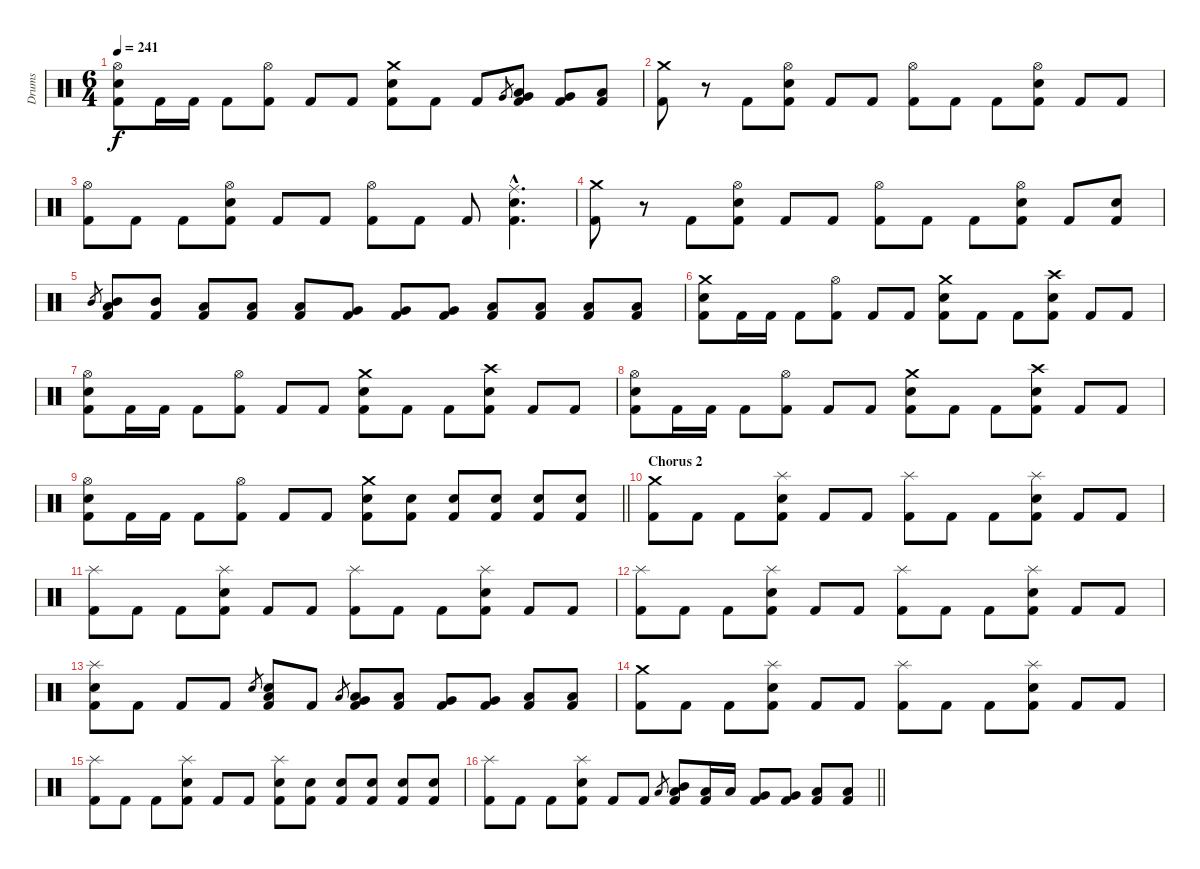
\track ("Drums" "Drums") {instrument percussion}
\staff {score}
\articulation defaults
\ts (6 4)
\tempo 241
\clef neutral
\ks c
("Hi-Hat (open)" "Electric Snare (hit)" "Kick (hit) 2").8{dy f} "Kick (hit) 2".16 "Kick (hit) 2".16 "Kick (hit) 2".8 ("Hi-Hat (open)" "Kick (hit) 2").8 "Kick (hit) 2".8 "Kick (hit) 2".8 ("Crash medium (hit)" "Electric Snare (hit)" "Kick (hit) 2").8 "Kick (hit) 2".8 "Kick (hit) 2".8 "Very Low Tom (hit)".8{gr} ("Very Low Tom (hit)" "Low Tom (hit)" "Kick (hit) 2").8 ("Very Low Tom (hit)" "Kick (hit) 2").8 ("Low Floor Tom (hit)" "Kick (hit) 2").8 |
("Crash medium (hit)" "Kick (hit) 2").8 r.8 "Kick (hit) 2".8 ("Hi-Hat (open)" "Electric Snare (hit)" "Kick (hit) 2").8 "Kick (hit) 2".8 "Kick (hit) 2".8 ("Hi-Hat (open)" "Kick (hit) 2").8 "Kick (hit) 2".8 "Kick (hit) 2".8 ("Hi-Hat (open)" "Electric Snare (hit)" "Kick (hit) 2").8 "Kick (hit) 2".8 "Kick (hit) 2".8 |
("Hi-Hat (open)" "Kick (hit) 2").8 "Kick (hit) 2".8 "Kick (hit) 2".8 ("Hi-Hat (open)" "Electric Snare (hit)" "Kick (hit) 2").8 "Kick (hit) 2".8 "Kick (hit) 2".8 ("Hi-Hat (open)" "Kick (hit) 2").8 "Kick (hit) 2".8 "Kick (hit) 2".8 ("Ride (middle)"{hac} "Electric Snare (hit)"{hac} "Kick (hit) 2"{hac}).4{d} |
("Crash medium (hit)" "Kick (hit) 2").8 r.8 "Kick (hit) 2".8 ("Hi-Hat (open)" "Electric Snare (hit)" "Kick (hit) 2").8 "Kick (hit) 2".8 "Kick (hit) 2".8 ("Hi-Hat (open)" "Kick (hit) 2").8 "Kick (hit) 2".8 "Kick (hit) 2".8 ("Hi-Hat (open)" "Electric Snare (hit)" "Kick (hit) 2").8 "Kick (hit) 2".8 ("Electric Snare (hit)" "Kick (hit) 2").8 |
"Mid Tom (hit)".8{gr} ("Mid Tom (hit)" "Low Tom (hit)" "Kick (hit) 2").8 ("Mid Tom (hit)" "Kick (hit) 2").8 ("Low Tom (hit)" "Kick (hit) 2").8 ("Low Tom (hit)" "Kick (hit) 2").8 ("Low Tom (hit)" "Kick (hit) 2").8 ("Very Low Tom (hit)" "Kick (hit) 2").8 ("Very Low Tom (hit)" "Kick (hit) 2").8 ("Very Low Tom (hit)" "Kick (hit) 2").8 ("Low Floor Tom (hit)" "Kick (hit) 2").8 ("Low Floor Tom (hit)" "Kick (hit) 2").8 ("Low Floor Tom (hit)" "Kick (hit) 2").8 ("Low Floor Tom (hit)" "Kick (hit) 2").8 |
("Crash medium (hit)" "Electric Snare (hit)" "Kick (hit) 2").8 "Kick (hit) 2".16 "Kick (hit) 2".16 "Kick (hit) 2".8 ("Hi-Hat (open)" "Kick (hit) 2").8 "Kick (hit) 2".8 "Kick (hit) 2".8 ("Crash medium (hit)" "Electric Snare (hit)" "Kick (hit) 2").8 "Kick (hit) 2".8 "Kick (hit) 2".8 ("Crash high (hit)" "Electric Snare (hit)" "Kick (hit) 2").8 "Kick (hit) 2".8 "Kick (hit) 2".8 |
("Hi-Hat (open)" "Electric Snare (hit)" "Kick (hit) 2").8 "Kick (hit) 2".16 "Kick (hit) 2".16 "Kick (hit) 2".8 ("Hi-Hat (open)" "Kick (hit) 2").8 "Kick (hit) 2".8 "Kick (hit) 2".8 ("Crash medium (hit)" "Electric Snare (hit)" "Kick (hit) 2").8 "Kick (hit) 2".8 "Kick (hit) 2".8 ("Crash high (hit)" "Electric Snare (hit)" "Kick (hit) 2").8 "Kick (hit) 2".8 "Kick (hit) 2".8 |
("Hi-Hat (open)" "Electric Snare (hit)" "Kick (hit) 2").8 "Kick (hit) 2".16 "Kick (hit) 2".16 "Kick (hit) 2".8 ("Hi-Hat (open)" "Kick (hit) 2").8 "Kick (hit) 2".8 "Kick (hit) 2".8 ("Crash medium (hit)" "Electric Snare (hit)" "Kick (hit) 2").8 "Kick (hit) 2".8 "Kick (hit) 2".8 ("Crash high (hit)" "Electric Snare (hit)" "Kick (hit) 2").8 "Kick (hit) 2".8 "Kick (hit) 2".8 |
\barLineRight lightlight
("Hi-Hat (open)" "Electric Snare (hit)" "Kick (hit) 2").8 "Kick (hit) 2".16 "Kick (hit) 2".16 "Kick (hit) 2".8 ("Hi-Hat (open)" "Kick (hit) 2").8 "Kick (hit) 2".8 "Kick (hit) 2".8 ("Crash medium (hit)" "Electric Snare (hit)" "Kick (hit) 2").8 ("Electric Snare (hit)" "Kick (hit) 2").8 ("Electric Snare (hit)" "Kick (hit) 2").8 ("Electric Snare (hit)" "Kick (hit) 2").8 ("Electric Snare (hit)" "Kick (hit) 2").8 ("Electric Snare (hit)" "Kick (hit) 2").8 |
\section ("" "Chorus 2")
("Crash medium (hit)" "Kick (hit) 2").8 "Kick (hit) 2".8 "Kick (hit) 2".8 ("Splash (hit)" "Electric Snare (hit)" "Kick (hit) 2").8 "Kick (hit) 2".8 "Kick (hit) 2".8 ("Splash (hit)" "Kick (hit) 2").8 "Kick (hit) 2".8 "Kick (hit) 2".8 ("Splash (hit)" "Electric Snare (hit)" "Kick (hit) 2").8 "Kick (hit) 2".8 "Kick (hit) 2".8 |
("Splash (hit)" "Kick (hit) 2").8 "Kick (hit) 2".8 "Kick (hit) 2".8 ("Splash (hit)" "Electric Snare (hit)" "Kick (hit) 2").8 "Kick (hit) 2".8 "Kick (hit) 2".8 ("Splash (hit)" "Kick (hit) 2").8 "Kick (hit) 2".8 "Kick (hit) 2".8 ("Splash (hit)" "Electric Snare (hit)" "Kick (hit) 2").8 "Kick (hit) 2".8 "Kick (hit) 2".8 |
("Splash (hit)" "Kick (hit) 2").8 "Kick (hit) 2".8 "Kick (hit) 2".8 ("Splash (hit)" "Electric Snare (hit)" "Kick (hit) 2").8 "Kick (hit) 2".8 "Kick (hit) 2".8 ("Splash (hit)" "Kick (hit) 2").8 "Kick (hit) 2".8 "Kick (hit) 2".8 ("Splash (hit)" "Electric Snare (hit)" "Kick (hit) 2").8 "Kick (hit) 2".8 "Kick (hit) 2".8 |
("Splash (hit)" "Electric Snare (hit)" "Kick (hit) 2").8 "Kick (hit) 2".8 "Kick (hit) 2".8 "Kick (hit) 2".8 "Electric Snare (hit)".8{gr} ("Low Tom (hit)" "Electric Snare (hit)" "Kick (hit) 2").8 "Kick (hit) 2".8 "Low Tom (hit)".8{gr} ("Low Tom (hit)" "Very Low Tom (hit)" "Kick (hit) 2").8 ("Low Tom (hit)" "Kick (hit) 2").8 ("Very Low Tom (hit)" "Kick (hit) 2").8 ("Very Low Tom (hit)" "Kick (hit) 2").8 ("Low Floor Tom (hit)" "Kick (hit) 2").8 ("Low Floor Tom (hit)" "Kick (hit) 2").8 |
("Crash medium (hit)" "Kick (hit) 2").8 "Kick (hit) 2".8 "Kick (hit) 2".8 ("Splash (hit)" "Electric Snare (hit)" "Kick (hit) 2").8 "Kick (hit) 2".8 "Kick (hit) 2".8 ("Splash (hit)" "Kick (hit) 2").8 "Kick (hit) 2".8 "Kick (hit) 2".8 ("Splash (hit)" "Electric Snare (hit)" "Kick (hit) 2").8 "Kick (hit) 2".8 "Kick (hit) 2".8 |
("Splash (hit)" "Kick (hit) 2").8 "Kick (hit) 2".8 "Kick (hit) 2".8 ("Splash (hit)" "Electric Snare (hit)" "Kick (hit) 2").8 "Kick (hit) 2".8 "Kick (hit) 2".8 ("Splash (hit)" "Electric Snare (hit)" "Kick (hit) 2").8 ("Electric Snare (hit)" "Kick (hit) 2").8 ("Electric Snare (hit)" "Kick (hit) 2").8 ("Electric Snare (hit)" "Kick (hit) 2").8 ("Electric Snare (hit)" "Kick (hit) 2").8 ("Electric Snare (hit)" "Kick (hit) 2").8 |
\barLineRight lightlight
("Splash (hit)" "Kick (hit) 2").8 "Kick (hit) 2".8 "Kick (hit) 2".8 ("Splash (hit)" "Electric Snare (hit)" "Kick (hit) 2").8 "Kick (hit) 2".8 "Kick (hit) 2".8 "Low Tom (hit)".8{gr} ("Mid Tom (hit)" "Low Tom (hit)" "Kick (hit) 2").8 ("Low Tom (hit)" "Kick (hit) 2").16 "Low Tom (hit)".16 ("Very Low Tom (hit)" "Kick (hit) 2").8 ("Very Low Tom (hit)" "Kick (hit) 2").8 ("Low Floor Tom (hit)" "Kick (hit) 2").8 ("Low Floor Tom (hit)" "Kick (hit) 2").8
